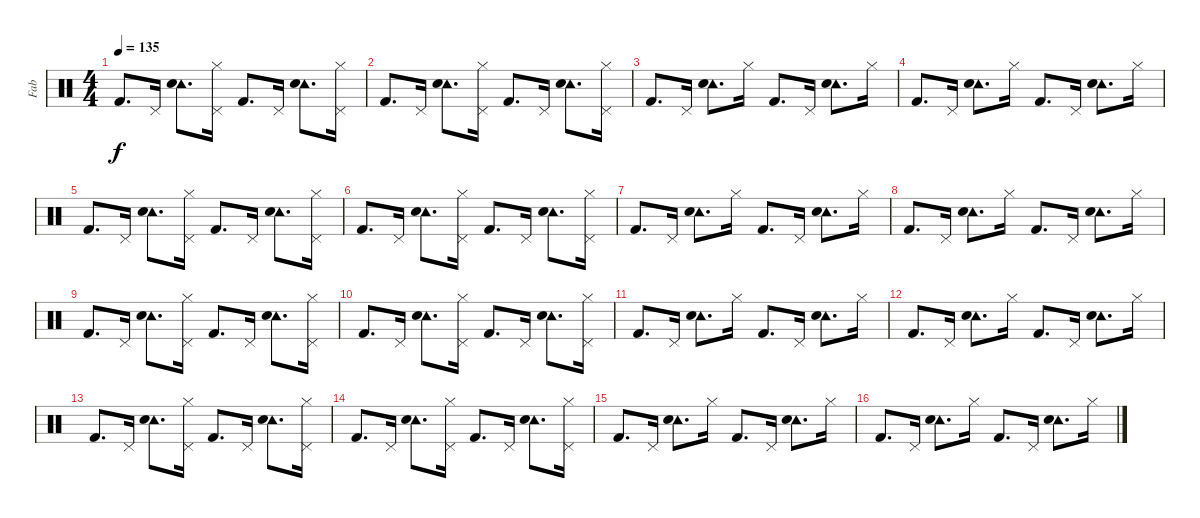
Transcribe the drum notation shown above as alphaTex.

\track ("Fab" "Fab") {instrument percussion}
\staff {score}
\articulation defaults
\ts (4 4)
\tempo 135
\clef neutral
\ks c "Kick (hit) 2".8{d dy f} "Pedal Hi-Hat (hit)".16
("Tambourine (hit)" "Snare (hit) 2").8{d} ("Hi-Hat (closed)" "Pedal Hi-Hat (hit)").16 "Kick (hit) 2".8{d} "Pedal Hi-Hat (hit)".16 ("Tambourine (hit)" "Snare (hit) 2").8{d} ("Hi-Hat (closed)" "Pedal Hi-Hat (hit)").16 |
"Kick (hit) 2".8{d} "Pedal Hi-Hat (hit)".16 ("Tambourine (hit)" "Snare (hit) 2").8{d} ("Hi-Hat (closed)" "Pedal Hi-Hat (hit)").16 "Kick (hit) 2".8{d} "Pedal Hi-Hat (hit)".16 ("Tambourine (hit)" "Snare (hit) 2").8{d} ("Hi-Hat (closed)" "Pedal Hi-Hat (hit)").16 |
"Kick (hit) 2".8{d} "Pedal Hi-Hat (hit)".16 ("Tambourine (hit)" "Snare (hit) 2").8{d} "Hi-Hat (closed)".16 "Kick (hit) 2".8{d} "Pedal Hi-Hat (hit)".16 ("Tambourine (hit)" "Snare (hit) 2").8{d} "Hi-Hat (closed)".16 |
"Kick (hit) 2".8{d} "Pedal Hi-Hat (hit)".16 ("Tambourine (hit)" "Snare (hit) 2").8{d} "Hi-Hat (closed)".16 "Kick (hit) 2".8{d} "Pedal Hi-Hat (hit)".16 ("Tambourine (hit)" "Snare (hit) 2").8{d} "Hi-Hat (closed)".16 |
"Kick (hit) 2".8{d} "Pedal Hi-Hat (hit)".16 ("Tambourine (hit)" "Snare (hit) 2").8{d} ("Hi-Hat (closed)" "Pedal Hi-Hat (hit)").16 "Kick (hit) 2".8{d} "Pedal Hi-Hat (hit)".16 ("Tambourine (hit)" "Snare (hit) 2").8{d} ("Hi-Hat (closed)" "Pedal Hi-Hat (hit)").16 |
"Kick (hit) 2".8{d} "Pedal Hi-Hat (hit)".16 ("Tambourine (hit)" "Snare (hit) 2").8{d} ("Hi-Hat (closed)" "Pedal Hi-Hat (hit)").16 "Kick (hit) 2".8{d} "Pedal Hi-Hat (hit)".16 ("Tambourine (hit)" "Snare (hit) 2").8{d} ("Hi-Hat (closed)" "Pedal Hi-Hat (hit)").16 |
"Kick (hit) 2".8{d} "Pedal Hi-Hat (hit)".16 ("Tambourine (hit)" "Snare (hit) 2").8{d} "Hi-Hat (closed)".16 "Kick (hit) 2".8{d} "Pedal Hi-Hat (hit)".16 ("Tambourine (hit)" "Snare (hit) 2").8{d} "Hi-Hat (closed)".16 |
"Kick (hit) 2".8{d} "Pedal Hi-Hat (hit)".16 ("Tambourine (hit)" "Snare (hit) 2").8{d} "Hi-Hat (closed)".16 "Kick (hit) 2".8{d} "Pedal Hi-Hat (hit)".16 ("Tambourine (hit)" "Snare (hit) 2").8{d} "Hi-Hat (closed)".16 |
"Kick (hit) 2".8{d} "Pedal Hi-Hat (hit)".16 ("Tambourine (hit)" "Snare (hit) 2").8{d} ("Hi-Hat (closed)" "Pedal Hi-Hat (hit)").16 "Kick (hit) 2".8{d} "Pedal Hi-Hat (hit)".16 ("Tambourine (hit)" "Snare (hit) 2").8{d} ("Hi-Hat (closed)" "Pedal Hi-Hat (hit)").16 |
"Kick (hit) 2".8{d} "Pedal Hi-Hat (hit)".16 ("Tambourine (hit)" "Snare (hit) 2").8{d} ("Hi-Hat (closed)" "Pedal Hi-Hat (hit)").16 "Kick (hit) 2".8{d} "Pedal Hi-Hat (hit)".16 ("Tambourine (hit)" "Snare (hit) 2").8{d} ("Hi-Hat (closed)" "Pedal Hi-Hat (hit)").16 |
"Kick (hit) 2".8{d} "Pedal Hi-Hat (hit)".16 ("Tambourine (hit)" "Snare (hit) 2").8{d} "Hi-Hat (closed)".16 "Kick (hit) 2".8{d} "Pedal Hi-Hat (hit)".16 ("Tambourine (hit)" "Snare (hit) 2").8{d} "Hi-Hat (closed)".16 |
"Kick (hit) 2".8{d} "Pedal Hi-Hat (hit)".16 ("Tambourine (hit)" "Snare (hit) 2").8{d} "Hi-Hat (closed)".16 "Kick (hit) 2".8{d} "Pedal Hi-Hat (hit)".16 ("Tambourine (hit)" "Snare (hit) 2").8{d} "Hi-Hat (closed)".16 |
"Kick (hit) 2".8{d} "Pedal Hi-Hat (hit)".16 ("Tambourine (hit)" "Snare (hit) 2").8{d} ("Hi-Hat (closed)" "Pedal Hi-Hat (hit)").16 "Kick (hit) 2".8{d} "Pedal Hi-Hat (hit)".16 ("Tambourine (hit)" "Snare (hit) 2").8{d} ("Hi-Hat (closed)" "Pedal Hi-Hat (hit)").16 |
"Kick (hit) 2".8{d} "Pedal Hi-Hat (hit)".16 ("Tambourine (hit)" "Snare (hit) 2").8{d} ("Hi-Hat (closed)" "Pedal Hi-Hat (hit)").16 "Kick (hit) 2".8{d} "Pedal Hi-Hat (hit)".16 ("Tambourine (hit)" "Snare (hit) 2").8{d} ("Hi-Hat (closed)" "Pedal Hi-Hat (hit)").16 |
"Kick (hit) 2".8{d} "Pedal Hi-Hat (hit)".16 ("Tambourine (hit)" "Snare (hit) 2").8{d} "Hi-Hat (closed)".16 "Kick (hit) 2".8{d} "Pedal Hi-Hat (hit)".16 ("Tambourine (hit)" "Snare (hit) 2").8{d} "Hi-Hat (closed)".16 |
"Kick (hit) 2".8{d} "Pedal Hi-Hat (hit)".16 ("Tambourine (hit)" "Snare (hit) 2").8{d} "Hi-Hat (closed)".16 "Kick (hit) 2".8{d} "Pedal Hi-Hat (hit)".16 ("Tambourine (hit)" "Snare (hit) 2").8{d} "Hi-Hat (closed)".16
